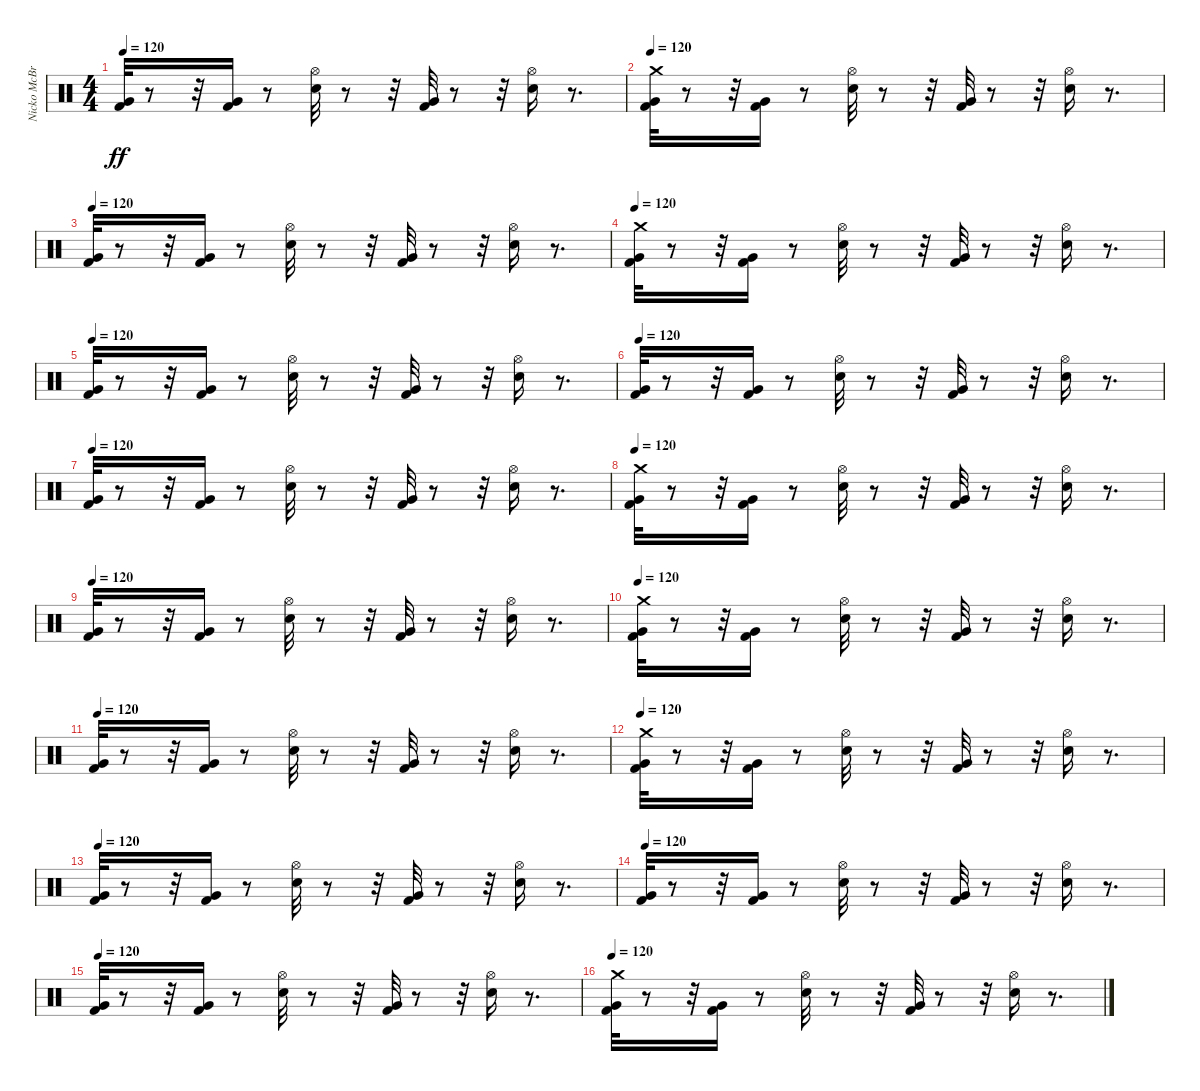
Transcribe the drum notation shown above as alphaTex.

\track ("Nicko McBrain" "Nicko McBr") {instrument percussion}
\staff {score}
\articulation defaults
\ts (4 4)
\tempo 122
\tempo 120
\clef neutral
\ks c
("Kick (hit) 2" "Very Low Tom (hit)").32{dy ff} r.8 r.32 ("Kick (hit) 2" "Very Low Tom (hit)").16 r.8 ("Electric Snare (hit)" "Hi-Hat (open)").32 r.8 r.32 ("Kick (hit) 2" "Very Low Tom (hit)").32 r.8 r.32 ("Electric Snare (hit)" "Hi-Hat (open)").16 r.8{d} |
\tempo 122
\tempo 120
("Kick (hit) 2" "Very Low Tom (hit)" "Crash medium (hit)").32 r.8 r.32 ("Kick (hit) 2" "Very Low Tom (hit)").16 r.8 ("Electric Snare (hit)" "Hi-Hat (open)").32 r.8 r.32 ("Kick (hit) 2" "Very Low Tom (hit)").32 r.8 r.32 ("Electric Snare (hit)" "Hi-Hat (open)").16 r.8{d} |
\tempo 120
("Kick (hit) 2" "Very Low Tom (hit)").32 r.8 r.32 ("Kick (hit) 2" "Very Low Tom (hit)").16 r.8 ("Electric Snare (hit)" "Hi-Hat (open)").32 r.8 r.32 ("Kick (hit) 2" "Very Low Tom (hit)").32 r.8 r.32 ("Electric Snare (hit)" "Hi-Hat (open)").16 r.8{d} |
\tempo 120
("Kick (hit) 2" "Very Low Tom (hit)" "Crash medium (hit)").32 r.8 r.32 ("Kick (hit) 2" "Very Low Tom (hit)").16 r.8 ("Electric Snare (hit)" "Hi-Hat (open)").32 r.8 r.32 ("Kick (hit) 2" "Very Low Tom (hit)").32 r.8 r.32 ("Electric Snare (hit)" "Hi-Hat (open)").16 r.8{d} |
\tempo 120
("Kick (hit) 2" "Very Low Tom (hit)").32 r.8 r.32 ("Kick (hit) 2" "Very Low Tom (hit)").16 r.8 ("Electric Snare (hit)" "Hi-Hat (open)").32 r.8 r.32 ("Kick (hit) 2" "Very Low Tom (hit)").32 r.8 r.32 ("Electric Snare (hit)" "Hi-Hat (open)").16 r.8{d} |
\tempo 120
("Kick (hit) 2" "Very Low Tom (hit)").32 r.8 r.32 ("Kick (hit) 2" "Very Low Tom (hit)").16 r.8 ("Electric Snare (hit)" "Hi-Hat (open)").32 r.8 r.32 ("Kick (hit) 2" "Very Low Tom (hit)").32 r.8 r.32 ("Electric Snare (hit)" "Hi-Hat (open)").16 r.8{d} |
\tempo 120
("Kick (hit) 2" "Very Low Tom (hit)").32 r.8 r.32 ("Kick (hit) 2" "Very Low Tom (hit)").16 r.8 ("Electric Snare (hit)" "Hi-Hat (open)").32 r.8 r.32 ("Kick (hit) 2" "Very Low Tom (hit)").32 r.8 r.32 ("Electric Snare (hit)" "Hi-Hat (open)").16 r.8{d} |
\tempo 120
("Kick (hit) 2" "Very Low Tom (hit)" "Crash medium (hit)").32 r.8 r.32 ("Kick (hit) 2" "Very Low Tom (hit)").16 r.8 ("Electric Snare (hit)" "Hi-Hat (open)").32 r.8 r.32 ("Kick (hit) 2" "Very Low Tom (hit)").32 r.8 r.32 ("Electric Snare (hit)" "Hi-Hat (open)").16 r.8{d} |
\tempo 120
("Kick (hit) 2" "Very Low Tom (hit)").32 r.8 r.32 ("Kick (hit) 2" "Very Low Tom (hit)").16 r.8 ("Electric Snare (hit)" "Hi-Hat (open)").32 r.8 r.32 ("Kick (hit) 2" "Very Low Tom (hit)").32 r.8 r.32 ("Electric Snare (hit)" "Hi-Hat (open)").16 r.8{d} |
\tempo 120
("Kick (hit) 2" "Very Low Tom (hit)" "Crash medium (hit)").32 r.8 r.32 ("Kick (hit) 2" "Very Low Tom (hit)").16 r.8 ("Electric Snare (hit)" "Hi-Hat (open)").32 r.8 r.32 ("Kick (hit) 2" "Very Low Tom (hit)").32 r.8 r.32 ("Electric Snare (hit)" "Hi-Hat (open)").16 r.8{d} |
\tempo 120
("Kick (hit) 2" "Very Low Tom (hit)").32 r.8 r.32 ("Kick (hit) 2" "Very Low Tom (hit)").16 r.8 ("Electric Snare (hit)" "Hi-Hat (open)").32 r.8 r.32 ("Kick (hit) 2" "Very Low Tom (hit)").32 r.8 r.32 ("Electric Snare (hit)" "Hi-Hat (open)").16 r.8{d} |
\tempo 120
("Kick (hit) 2" "Very Low Tom (hit)" "Crash medium (hit)").32 r.8 r.32 ("Kick (hit) 2" "Very Low Tom (hit)").16 r.8 ("Electric Snare (hit)" "Hi-Hat (open)").32 r.8 r.32 ("Kick (hit) 2" "Very Low Tom (hit)").32 r.8 r.32 ("Electric Snare (hit)" "Hi-Hat (open)").16 r.8{d} |
\tempo 120
("Kick (hit) 2" "Very Low Tom (hit)").32 r.8 r.32 ("Kick (hit) 2" "Very Low Tom (hit)").16 r.8 ("Electric Snare (hit)" "Hi-Hat (open)").32 r.8 r.32 ("Kick (hit) 2" "Very Low Tom (hit)").32 r.8 r.32 ("Electric Snare (hit)" "Hi-Hat (open)").16 r.8{d} |
\tempo 120
("Kick (hit) 2" "Very Low Tom (hit)").32 r.8 r.32 ("Kick (hit) 2" "Very Low Tom (hit)").16 r.8 ("Electric Snare (hit)" "Hi-Hat (open)").32 r.8 r.32 ("Kick (hit) 2" "Very Low Tom (hit)").32 r.8 r.32 ("Electric Snare (hit)" "Hi-Hat (open)").16 r.8{d} |
\tempo 120
("Kick (hit) 2" "Very Low Tom (hit)").32 r.8 r.32 ("Kick (hit) 2" "Very Low Tom (hit)").16 r.8 ("Electric Snare (hit)" "Hi-Hat (open)").32 r.8 r.32 ("Kick (hit) 2" "Very Low Tom (hit)").32 r.8 r.32 ("Electric Snare (hit)" "Hi-Hat (open)").16 r.8{d} |
\tempo 120
("Kick (hit) 2" "Very Low Tom (hit)" "Crash medium (hit)").32 r.8 r.32 ("Kick (hit) 2" "Very Low Tom (hit)").16 r.8 ("Electric Snare (hit)" "Hi-Hat (open)").32 r.8 r.32 ("Kick (hit) 2" "Very Low Tom (hit)").32 r.8 r.32 ("Electric Snare (hit)" "Hi-Hat (open)").16 r.8{d}
